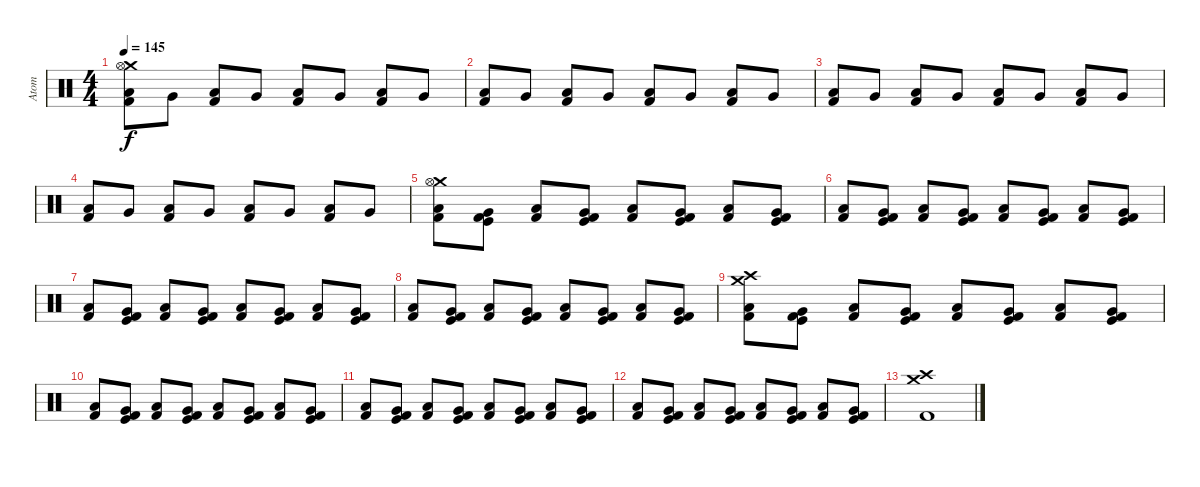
\track ("Atom" "Atom") {instrument percussion}
\staff {score}
\articulation defaults
\ts (4 4)
\tempo 145
\clef neutral
\ks c
("Crash medium (hit)" "Hi-Hat (open)" "Kick (hit) 2" "Low Tom (hit)").8{dy f} "Very Low Tom (hit)".8 ("Kick (hit) 2" "Low Floor Tom (hit)").8 "Very Low Tom (hit)".8 ("Kick (hit) 2" "Low Tom (hit)").8 "Very Low Tom (hit)".8 ("Kick (hit) 2" "Low Floor Tom (hit)").8 "Very Low Tom (hit)".8 |
("Kick (hit) 2" "Low Tom (hit)").8 "Very Low Tom (hit)".8 ("Kick (hit) 2" "Low Floor Tom (hit)").8 "Very Low Tom (hit)".8 ("Kick (hit) 2" "Low Tom (hit)").8 "Very Low Tom (hit)".8 ("Kick (hit) 2" "Low Floor Tom (hit)").8 "Very Low Tom (hit)".8 |
("Kick (hit) 2" "Low Tom (hit)").8 "Very Low Tom (hit)".8 ("Kick (hit) 2" "Low Floor Tom (hit)").8 "Very Low Tom (hit)".8 ("Kick (hit) 2" "Low Tom (hit)").8 "Very Low Tom (hit)".8 ("Kick (hit) 2" "Low Floor Tom (hit)").8 "Very Low Tom (hit)".8 |
("Kick (hit) 2" "Low Tom (hit)").8 "Very Low Tom (hit)".8 ("Kick (hit) 2" "Low Floor Tom (hit)").8 "Very Low Tom (hit)".8 ("Kick (hit) 2" "Low Tom (hit)").8 "Very Low Tom (hit)".8 ("Kick (hit) 2" "Low Floor Tom (hit)").8 "Very Low Tom (hit)".8 |
("Crash medium (hit)" "Hi-Hat (open)" "Kick (hit) 2" "Low Tom (hit)").8 ("Kick (hit) 2" "Kick (hit)" "Very Low Tom (hit)").8 ("Kick (hit) 2" "Low Floor Tom (hit)").8 ("Kick (hit) 2" "Kick (hit)" "Very Low Tom (hit)").8 ("Kick (hit) 2" "Low Tom (hit)").8 ("Kick (hit) 2" "Kick (hit)" "Very Low Tom (hit)").8 ("Kick (hit) 2" "Low Floor Tom (hit)").8 ("Kick (hit) 2" "Kick (hit)" "Very Low Tom (hit)").8 |
("Kick (hit) 2" "Low Tom (hit)").8 ("Kick (hit) 2" "Kick (hit)" "Very Low Tom (hit)").8 ("Kick (hit) 2" "Low Floor Tom (hit)").8 ("Kick (hit) 2" "Kick (hit)" "Very Low Tom (hit)").8 ("Kick (hit) 2" "Low Tom (hit)").8 ("Kick (hit) 2" "Kick (hit)" "Very Low Tom (hit)").8 ("Kick (hit) 2" "Low Floor Tom (hit)").8 ("Kick (hit) 2" "Kick (hit)" "Very Low Tom (hit)").8 |
("Kick (hit) 2" "Low Tom (hit)").8 ("Kick (hit) 2" "Kick (hit)" "Very Low Tom (hit)").8 ("Kick (hit) 2" "Low Floor Tom (hit)").8 ("Kick (hit) 2" "Kick (hit)" "Very Low Tom (hit)").8 ("Kick (hit) 2" "Low Tom (hit)").8 ("Kick (hit) 2" "Kick (hit)" "Very Low Tom (hit)").8 ("Kick (hit) 2" "Low Floor Tom (hit)").8 ("Kick (hit) 2" "Kick (hit)" "Very Low Tom (hit)").8 |
("Kick (hit) 2" "Low Tom (hit)").8 ("Kick (hit) 2" "Kick (hit)" "Very Low Tom (hit)").8 ("Kick (hit) 2" "Low Floor Tom (hit)").8 ("Kick (hit) 2" "Kick (hit)" "Very Low Tom (hit)").8 ("Kick (hit) 2" "Low Tom (hit)").8 ("Kick (hit) 2" "Kick (hit)" "Very Low Tom (hit)").8 ("Kick (hit) 2" "Low Floor Tom (hit)").8 ("Kick (hit) 2" "Kick (hit)" "Very Low Tom (hit)").8 |
("Crash medium (hit)" "Crash high (hit)" "Kick (hit) 2" "Low Tom (hit)").8 ("Kick (hit) 2" "Kick (hit)" "Very Low Tom (hit)").8 ("Kick (hit) 2" "Low Floor Tom (hit)").8 ("Kick (hit) 2" "Kick (hit)" "Very Low Tom (hit)").8 ("Kick (hit) 2" "Low Tom (hit)").8 ("Kick (hit) 2" "Kick (hit)" "Very Low Tom (hit)").8 ("Kick (hit) 2" "Low Floor Tom (hit)").8 ("Kick (hit) 2" "Kick (hit)" "Very Low Tom (hit)").8 |
("Kick (hit) 2" "Low Tom (hit)").8 ("Kick (hit) 2" "Kick (hit)" "Very Low Tom (hit)").8 ("Kick (hit) 2" "Low Floor Tom (hit)").8 ("Kick (hit) 2" "Kick (hit)" "Very Low Tom (hit)").8 ("Kick (hit) 2" "Low Tom (hit)").8 ("Kick (hit) 2" "Kick (hit)" "Very Low Tom (hit)").8 ("Kick (hit) 2" "Low Floor Tom (hit)").8 ("Kick (hit) 2" "Kick (hit)" "Very Low Tom (hit)").8 |
("Kick (hit) 2" "Low Tom (hit)").8 ("Kick (hit) 2" "Kick (hit)" "Very Low Tom (hit)").8 ("Kick (hit) 2" "Low Floor Tom (hit)").8 ("Kick (hit) 2" "Kick (hit)" "Very Low Tom (hit)").8 ("Kick (hit) 2" "Low Tom (hit)").8 ("Kick (hit) 2" "Kick (hit)" "Very Low Tom (hit)").8 ("Kick (hit) 2" "Low Floor Tom (hit)").8 ("Kick (hit) 2" "Kick (hit)" "Very Low Tom (hit)").8 |
("Kick (hit) 2" "Low Tom (hit)").8 ("Kick (hit) 2" "Kick (hit)" "Very Low Tom (hit)").8 ("Kick (hit) 2" "Low Floor Tom (hit)").8 ("Kick (hit) 2" "Kick (hit)" "Very Low Tom (hit)").8 ("Kick (hit) 2" "Low Tom (hit)").8 ("Kick (hit) 2" "Kick (hit)" "Very Low Tom (hit)").8 ("Kick (hit) 2" "Low Floor Tom (hit)").8 ("Kick (hit) 2" "Kick (hit)" "Very Low Tom (hit)").8 |
("Crash high (hit)" "Crash medium (hit)" "Kick (hit) 2").1
